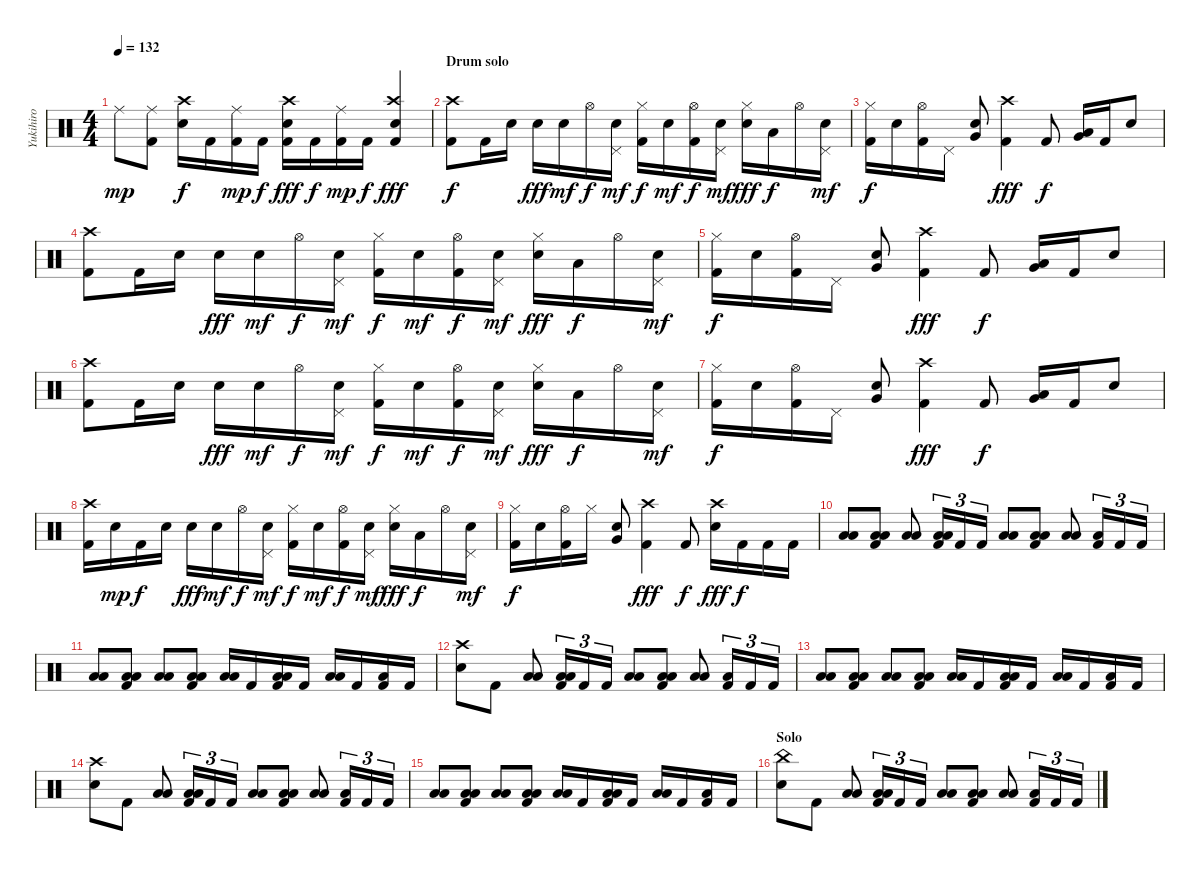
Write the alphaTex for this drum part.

\track ("Yukihiro" "Yukihiro") {instrument percussion}
\staff {score}
\articulation defaults
\ts (4 4)
\tempo 132
\clef neutral
\ks c "Ride (middle)".8{dy mp}
("Ride (middle)" "Kick (hit) 2").8 ("Crash high (hit)" "Electric Snare (hit)").16{dy f} "Kick (hit) 2".16 ("Ride (middle)" "Kick (hit) 2").16{dy mp} "Kick (hit) 2".16{dy f} ("Crash high (hit)" "Electric Snare (hit)" "Kick (hit) 2").16{dy fff} "Kick (hit) 2".16{dy f} ("Ride (middle)" "Kick (hit) 2").16{dy mp} "Kick (hit) 2".16{dy f} ("Crash high (hit)" "Electric Snare (hit)" "Kick (hit) 2").4{dy fff} |
\section ("" "Drum solo")
("Crash high (hit)" "Kick (hit) 2").8{dy f} "Kick (hit) 2".16 "Electric Snare (hit)".16 "Electric Snare (hit)".16{dy fff} "Electric Snare (hit)".16{dy mf} "Hi-Hat (open)".16{dy f} ("Pedal Hi-Hat (hit)" "Electric Snare (hit)").16{dy mf} ("Hi-Hat (closed)" "Kick (hit) 2").16{dy f} "Electric Snare (hit)".16{dy mf} ("Hi-Hat (open)" "Kick (hit) 2").16{dy f} ("Pedal Hi-Hat (hit)" "Electric Snare (hit)").16{dy mf} ("Hi-Hat (closed)" "Electric Snare (hit)").16{dy fff} "Low Tom (hit)".16{dy f} "Hi-Hat (open)".16 ("Pedal Hi-Hat (hit)" "Electric Snare (hit)").16{dy mf} |
("Hi-Hat (closed)" "Kick (hit) 2").16{dy f} "Electric Snare (hit)".16 ("Hi-Hat (open)" "Kick (hit) 2").16 "Pedal Hi-Hat (hit)".16 ("Electric Snare (hit)" "Very Low Tom (hit)").8 ("Crash high (hit)" "Kick (hit) 2").4{dy fff} "Kick (hit) 2".8{dy f} ("Low Tom (hit)" "Very Low Tom (hit)").16 "Kick (hit) 2".16 "Electric Snare (hit)".8 |
("Crash high (hit)" "Kick (hit) 2").8 "Kick (hit) 2".16 "Electric Snare (hit)".16 "Electric Snare (hit)".16{dy fff} "Electric Snare (hit)".16{dy mf} "Hi-Hat (open)".16{dy f} ("Pedal Hi-Hat (hit)" "Electric Snare (hit)").16{dy mf} ("Hi-Hat (closed)" "Kick (hit) 2").16{dy f} "Electric Snare (hit)".16{dy mf} ("Hi-Hat (open)" "Kick (hit) 2").16{dy f} ("Pedal Hi-Hat (hit)" "Electric Snare (hit)").16{dy mf} ("Hi-Hat (closed)" "Electric Snare (hit)").16{dy fff} "Low Tom (hit)".16{dy f} "Hi-Hat (open)".16 ("Pedal Hi-Hat (hit)" "Electric Snare (hit)").16{dy mf} |
("Hi-Hat (closed)" "Kick (hit) 2").16{dy f} "Electric Snare (hit)".16 ("Hi-Hat (open)" "Kick (hit) 2").16 "Pedal Hi-Hat (hit)".16 ("Electric Snare (hit)" "Very Low Tom (hit)").8 ("Crash high (hit)" "Kick (hit) 2").4{dy fff} "Kick (hit) 2".8{dy f} ("Low Tom (hit)" "Very Low Tom (hit)").16 "Kick (hit) 2".16 "Electric Snare (hit)".8 |
("Crash high (hit)" "Kick (hit) 2").8 "Kick (hit) 2".16 "Electric Snare (hit)".16 "Electric Snare (hit)".16{dy fff} "Electric Snare (hit)".16{dy mf} "Hi-Hat (open)".16{dy f} ("Pedal Hi-Hat (hit)" "Electric Snare (hit)").16{dy mf} ("Hi-Hat (closed)" "Kick (hit) 2").16{dy f} "Electric Snare (hit)".16{dy mf} ("Hi-Hat (open)" "Kick (hit) 2").16{dy f} ("Pedal Hi-Hat (hit)" "Electric Snare (hit)").16{dy mf} ("Hi-Hat (closed)" "Electric Snare (hit)").16{dy fff} "Low Tom (hit)".16{dy f} "Hi-Hat (open)".16 ("Pedal Hi-Hat (hit)" "Electric Snare (hit)").16{dy mf} |
("Hi-Hat (closed)" "Kick (hit) 2").16{dy f} "Electric Snare (hit)".16 ("Hi-Hat (open)" "Kick (hit) 2").16 "Pedal Hi-Hat (hit)".16 ("Electric Snare (hit)" "Very Low Tom (hit)").8 ("Crash high (hit)" "Kick (hit) 2").4{dy fff} "Kick (hit) 2".8{dy f} ("Low Tom (hit)" "Very Low Tom (hit)").16 "Kick (hit) 2".16 "Electric Snare (hit)".8 |
("Crash high (hit)" "Kick (hit) 2").16 "Electric Snare (hit)".16{dy mp} "Kick (hit) 2".16{dy f} "Electric Snare (hit)".16 "Electric Snare (hit)".16{dy fff} "Electric Snare (hit)".16{dy mf} "Hi-Hat (open)".16{dy f} ("Pedal Hi-Hat (hit)" "Electric Snare (hit)").16{dy mf} ("Hi-Hat (closed)" "Kick (hit) 2").16{dy f} "Electric Snare (hit)".16{dy mf} ("Hi-Hat (open)" "Kick (hit) 2").16{dy f} ("Pedal Hi-Hat (hit)" "Electric Snare (hit)").16{dy mf} ("Hi-Hat (closed)" "Electric Snare (hit)").16{dy fff} "Low Tom (hit)".16{dy f} "Hi-Hat (open)".16 ("Pedal Hi-Hat (hit)" "Electric Snare (hit)").16{dy mf} |
("Hi-Hat (closed)" "Kick (hit) 2").16{dy f} "Electric Snare (hit)".16 ("Hi-Hat (open)" "Kick (hit) 2").16 "Hi-Hat (closed)".16 ("Electric Snare (hit)" "Very Low Tom (hit)").8 ("Crash high (hit)" "Kick (hit) 2").4{dy fff} "Kick (hit) 2".8{dy f} ("Crash high (hit)" "Electric Snare (hit)").16{dy fff} "Kick (hit) 2".16{dy f} "Kick (hit) 2".16 "Kick (hit) 2".16 |
("Low Tom (hit)" "Low Floor Tom (hit)").8 ("Low Tom (hit)" "Low Floor Tom (hit)" "Kick (hit) 2").8 ("Low Tom (hit)" "Low Floor Tom (hit)").8 ("Low Tom (hit)" "Low Floor Tom (hit)" "Kick (hit) 2").16{tu (3 2)} "Kick (hit) 2".16{tu (3 2)} "Kick (hit) 2".16{tu (3 2)} ("Low Tom (hit)" "Low Floor Tom (hit)").8 ("Low Tom (hit)" "Low Floor Tom (hit)" "Kick (hit) 2").8 ("Low Tom (hit)" "Low Floor Tom (hit)").8 ("Low Floor Tom (hit)" "Kick (hit) 2").16{tu (3 2)} "Kick (hit) 2".16{tu (3 2)} "Kick (hit) 2".16{tu (3 2)} |
("Low Tom (hit)" "Low Floor Tom (hit)").8 ("Low Tom (hit)" "Low Floor Tom (hit)" "Kick (hit) 2").8 ("Low Tom (hit)" "Low Floor Tom (hit)").8 ("Low Tom (hit)" "Low Floor Tom (hit)" "Kick (hit) 2").8 ("Low Tom (hit)" "Low Floor Tom (hit)").16 "Kick (hit) 2".16 ("Low Tom (hit)" "Low Floor Tom (hit)" "Kick (hit) 2").16 "Kick (hit) 2".16 ("Low Tom (hit)" "Low Floor Tom (hit)").16 "Kick (hit) 2".16 ("Low Floor Tom (hit)" "Kick (hit) 2").16 "Kick (hit) 2".16 |
("Crash high (hit)" "Electric Snare (hit)").8 "Kick (hit) 2".8 ("Low Tom (hit)" "Low Floor Tom (hit)").8 ("Low Tom (hit)" "Low Floor Tom (hit)" "Kick (hit) 2").16{tu (3 2)} "Kick (hit) 2".16{tu (3 2)} "Kick (hit) 2".16{tu (3 2)} ("Low Tom (hit)" "Low Floor Tom (hit)").8 ("Low Tom (hit)" "Low Floor Tom (hit)" "Kick (hit) 2").8 ("Low Tom (hit)" "Low Floor Tom (hit)").8 ("Low Floor Tom (hit)" "Kick (hit) 2").16{tu (3 2)} "Kick (hit) 2".16{tu (3 2)} "Kick (hit) 2".16{tu (3 2)} |
("Low Tom (hit)" "Low Floor Tom (hit)").8 ("Low Tom (hit)" "Low Floor Tom (hit)" "Kick (hit) 2").8 ("Low Tom (hit)" "Low Floor Tom (hit)").8 ("Low Tom (hit)" "Low Floor Tom (hit)" "Kick (hit) 2").8 ("Low Tom (hit)" "Low Floor Tom (hit)").16 "Kick (hit) 2".16 ("Low Tom (hit)" "Low Floor Tom (hit)" "Kick (hit) 2").16 "Kick (hit) 2".16 ("Low Tom (hit)" "Low Floor Tom (hit)").16 "Kick (hit) 2".16 ("Low Floor Tom (hit)" "Kick (hit) 2").16 "Kick (hit) 2".16 |
("Crash high (hit)" "Electric Snare (hit)").8 "Kick (hit) 2".8 ("Low Tom (hit)" "Low Floor Tom (hit)").8 ("Low Tom (hit)" "Low Floor Tom (hit)" "Kick (hit) 2").16{tu (3 2)} "Kick (hit) 2".16{tu (3 2)} "Kick (hit) 2".16{tu (3 2)} ("Low Tom (hit)" "Low Floor Tom (hit)").8 ("Low Tom (hit)" "Low Floor Tom (hit)" "Kick (hit) 2").8 ("Low Tom (hit)" "Low Floor Tom (hit)").8 ("Low Floor Tom (hit)" "Kick (hit) 2").16{tu (3 2)} "Kick (hit) 2".16{tu (3 2)} "Kick (hit) 2".16{tu (3 2)} |
("Low Tom (hit)" "Low Floor Tom (hit)").8 ("Low Tom (hit)" "Low Floor Tom (hit)" "Kick (hit) 2").8 ("Low Tom (hit)" "Low Floor Tom (hit)").8 ("Low Tom (hit)" "Low Floor Tom (hit)" "Kick (hit) 2").8 ("Low Tom (hit)" "Low Floor Tom (hit)").16 "Kick (hit) 2".16 ("Low Tom (hit)" "Low Floor Tom (hit)" "Kick (hit) 2").16 "Kick (hit) 2".16 ("Low Tom (hit)" "Low Floor Tom (hit)").16 "Kick (hit) 2".16 ("Low Floor Tom (hit)" "Kick (hit) 2").16 "Kick (hit) 2".16 |
\section ("" "Solo")
("China (hit)" "Electric Snare (hit)").8 "Kick (hit) 2".8 ("Low Tom (hit)" "Low Floor Tom (hit)").8 ("Low Tom (hit)" "Low Floor Tom (hit)" "Kick (hit) 2").16{tu (3 2)} "Kick (hit) 2".16{tu (3 2)} "Kick (hit) 2".16{tu (3 2)} ("Low Tom (hit)" "Low Floor Tom (hit)").8 ("Low Tom (hit)" "Low Floor Tom (hit)" "Kick (hit) 2").8 ("Low Tom (hit)" "Low Floor Tom (hit)").8 ("Low Floor Tom (hit)" "Kick (hit) 2").16{tu (3 2)} "Kick (hit) 2".16{tu (3 2)} "Kick (hit) 2".16{tu (3 2)}
